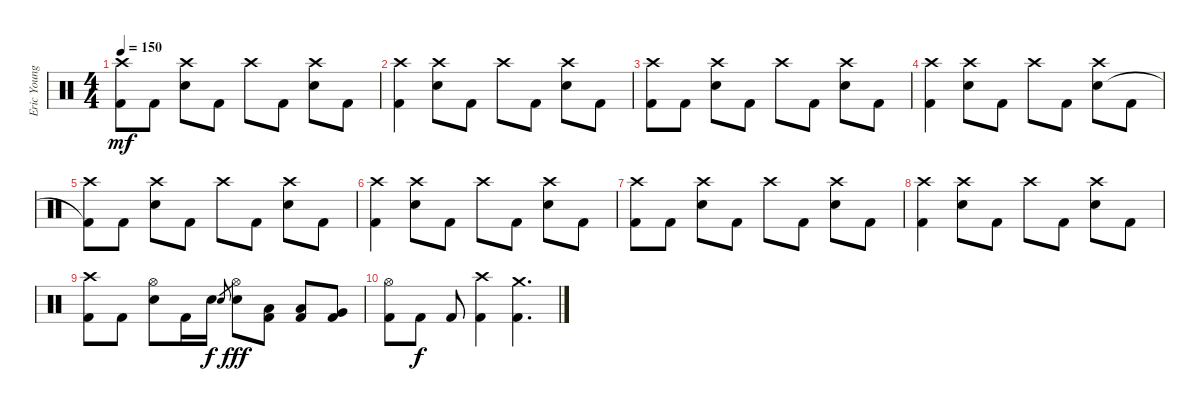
\track ("Eric Young" "Eric Young") {instrument percussion}
\staff {score}
\articulation defaults
\ts (4 4)
\tempo 150
\clef neutral
\ks c
("Crash high (hit)" "Kick (hit) 2"{t}).8{dy mf} "Kick (hit) 2".8 ("Crash high (hit)" "Electric Snare (hit)").8 "Kick (hit) 2".8 "Crash high (hit)".8 "Kick (hit) 2".8 ("Crash high (hit)" "Electric Snare (hit)").8 "Kick (hit) 2".8 |
("Crash high (hit)" "Kick (hit) 2").4 ("Crash high (hit)" "Electric Snare (hit)").8 "Kick (hit) 2".8 "Crash high (hit)".8 "Kick (hit) 2".8 ("Crash high (hit)" "Electric Snare (hit)").8 "Kick (hit) 2".8 |
("Crash high (hit)" "Kick (hit) 2").8 "Kick (hit) 2".8 ("Crash high (hit)" "Electric Snare (hit)").8 "Kick (hit) 2".8 "Crash high (hit)".8 "Kick (hit) 2".8 ("Crash high (hit)" "Electric Snare (hit)").8 "Kick (hit) 2".8 |
("Crash high (hit)" "Kick (hit) 2").4 ("Crash high (hit)" "Electric Snare (hit)").8 "Kick (hit) 2".8 "Crash high (hit)".8 "Kick (hit) 2".8 ("Crash high (hit)" "Electric Snare (hit)").8 "Kick (hit) 2".8 |
("Crash high (hit)" "Kick (hit) 2"{t}).8 "Kick (hit) 2".8 ("Crash high (hit)" "Electric Snare (hit)").8 "Kick (hit) 2".8 "Crash high (hit)".8 "Kick (hit) 2".8 ("Crash high (hit)" "Electric Snare (hit)").8 "Kick (hit) 2".8 |
("Crash high (hit)" "Kick (hit) 2").4 ("Crash high (hit)" "Electric Snare (hit)").8 "Kick (hit) 2".8 "Crash high (hit)".8 "Kick (hit) 2".8 ("Crash high (hit)" "Electric Snare (hit)").8 "Kick (hit) 2".8 |
("Crash high (hit)" "Kick (hit) 2").8 "Kick (hit) 2".8 ("Crash high (hit)" "Electric Snare (hit)").8 "Kick (hit) 2".8 "Crash high (hit)".8 "Kick (hit) 2".8 ("Crash high (hit)" "Electric Snare (hit)").8 "Kick (hit) 2".8 |
("Crash high (hit)" "Kick (hit) 2").4 ("Crash high (hit)" "Electric Snare (hit)").8 "Kick (hit) 2".8 "Crash high (hit)".8 "Kick (hit) 2".8 ("Crash high (hit)" "Electric Snare (hit)").8 "Kick (hit) 2".8 |
("Crash high (hit)" "Kick (hit) 2").8 "Kick (hit) 2".8 ("Hi-Hat (open)" "Electric Snare (hit)").8 "Kick (hit) 2".16 "Electric Snare (hit)".16{dy f} "Electric Snare (hit)".8{gr} ("Hi-Hat (open)" "Electric Snare (hit)").8{dy fff} ("Low Tom (hit)" "Kick (hit) 2").8 ("Low Tom (hit)" "Kick (hit) 2").8 ("Very Low Tom (hit)" "Kick (hit) 2").8 |
("Hi-Hat (open)" "Kick (hit) 2").8 "Kick (hit) 2".8{dy f} "Kick (hit) 2".8 ("Crash high (hit)" "Kick (hit) 2").4 ("Crash medium (hit)" "Kick (hit) 2").4{d}
